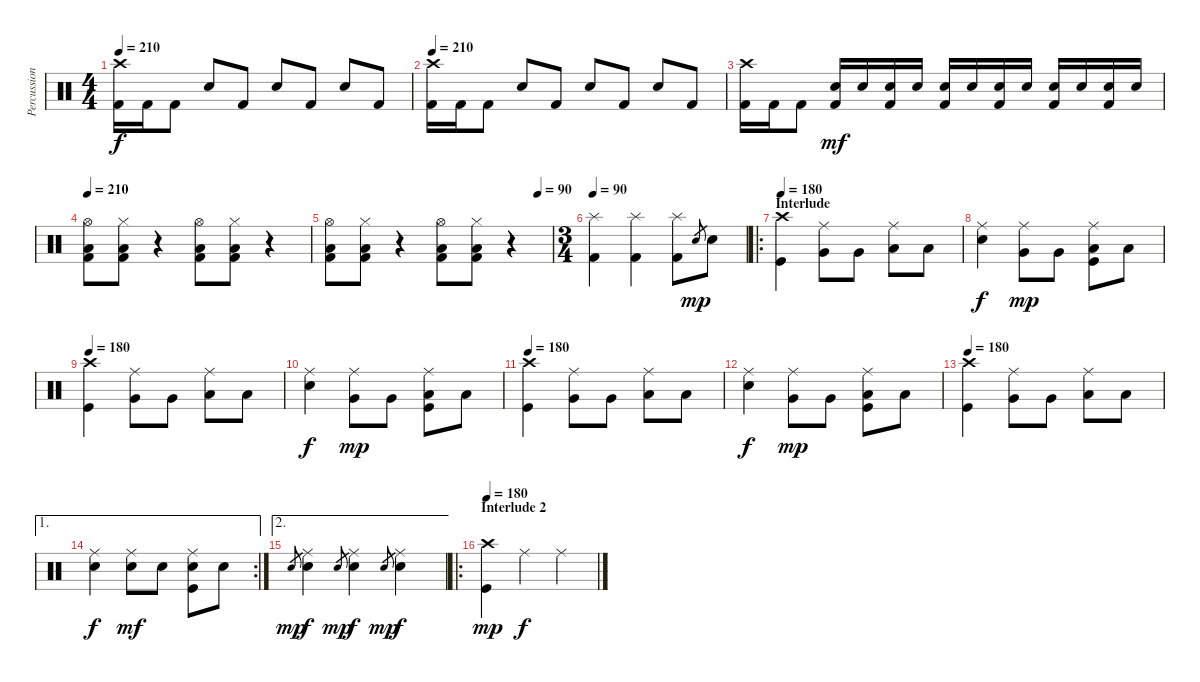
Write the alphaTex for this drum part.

\track ("Percussion" "Percussion") {instrument percussion}
\staff {score}
\articulation defaults
\ts (4 4)
\tempo 210
\clef neutral
\ks c
("Crash high (hit)" "Kick (hit) 2").16{dy f} "Kick (hit) 2".16 "Kick (hit) 2".8 "Electric Snare (hit)".8 "Kick (hit) 2".8 "Electric Snare (hit)".8 "Kick (hit) 2".8 "Electric Snare (hit)".8 "Kick (hit) 2".8 |
\tempo 210
("Crash high (hit)" "Kick (hit) 2").16 "Kick (hit) 2".16 "Kick (hit) 2".8 "Electric Snare (hit)".8 "Kick (hit) 2".8 "Electric Snare (hit)".8 "Kick (hit) 2".8 "Electric Snare (hit)".8 "Kick (hit) 2".8 |
("Crash high (hit)" "Kick (hit) 2").16 "Kick (hit) 2".16 "Kick (hit) 2".8 ("Electric Snare (hit)" "Kick (hit) 2").16{dy mf} "Electric Snare (hit)".16 ("Electric Snare (hit)" "Kick (hit) 2").16 "Electric Snare (hit)".16 ("Electric Snare (hit)" "Kick (hit) 2").16 "Electric Snare (hit)".16 ("Electric Snare (hit)" "Kick (hit) 2").16 "Electric Snare (hit)".16 ("Electric Snare (hit)" "Kick (hit) 2").16 "Electric Snare (hit)".16 ("Electric Snare (hit)" "Kick (hit) 2").16 "Electric Snare (hit)".16 |
\tempo 210
("Hi-Hat (open)" "Low Floor Tom (hit)" "Kick (hit) 2").8 ("Hi-Hat (closed)" "Low Floor Tom (hit)" "Kick (hit) 2").8 r.4 ("Hi-Hat (open)" "Low Floor Tom (hit)" "Kick (hit) 2").8 ("Hi-Hat (closed)" "Low Floor Tom (hit)" "Kick (hit) 2").8 r.4 |
\tempo (90 0.9375)
("Hi-Hat (open)" "Low Floor Tom (hit)" "Kick (hit) 2").8 ("Hi-Hat (closed)" "Low Floor Tom (hit)" "Kick (hit) 2").8 r.4 ("Hi-Hat (open)" "Low Floor Tom (hit)" "Kick (hit) 2").8 ("Hi-Hat (closed)" "Low Floor Tom (hit)" "Kick (hit) 2").8 r.4 |
\ts (3 4)
\tempo 90
("Splash (hit)" "Kick (hit) 2").4 ("Splash (hit)" "Kick (hit) 2").4 ("Splash (hit)" "Kick (hit) 2").8 "Electric Snare (hit)".8{gr dy mp} "Electric Snare (hit)".8 |
\ro
\section ("" "Interlude")
\tempo 180
("Crash high (hit)" "Kick (hit)").4 ("Ride (middle)" "Very Low Tom (hit)").8 "Very Low Tom (hit)".8 ("Ride (middle)" "Low Floor Tom (hit)").8 "Low Floor Tom (hit)".8 |
("Ride (middle)" "Electric Snare (hit)").4{dy f} ("Ride (middle)" "Very Low Tom (hit)").8{dy mp} "Very Low Tom (hit)".8 ("Ride (middle)" "Low Floor Tom (hit)" "Kick (hit)").8 "Low Floor Tom (hit)".8 |
\tempo 180
("Crash high (hit)" "Kick (hit)").4 ("Ride (middle)" "Very Low Tom (hit)").8 "Very Low Tom (hit)".8 ("Ride (middle)" "Low Floor Tom (hit)").8 "Low Floor Tom (hit)".8 |
("Ride (middle)" "Electric Snare (hit)").4{dy f} ("Ride (middle)" "Very Low Tom (hit)").8{dy mp} "Very Low Tom (hit)".8 ("Ride (middle)" "Low Floor Tom (hit)" "Kick (hit)").8 "Low Floor Tom (hit)".8 |
\tempo 180
("Crash high (hit)" "Kick (hit)").4 ("Ride (middle)" "Very Low Tom (hit)").8 "Very Low Tom (hit)".8 ("Ride (middle)" "Low Floor Tom (hit)").8 "Low Floor Tom (hit)".8 |
("Ride (middle)" "Electric Snare (hit)").4{dy f} ("Ride (middle)" "Very Low Tom (hit)").8{dy mp} "Very Low Tom (hit)".8 ("Ride (middle)" "Low Floor Tom (hit)" "Kick (hit)").8 "Low Floor Tom (hit)".8 |
\tempo 180
("Crash high (hit)" "Kick (hit)").4 ("Ride (middle)" "Very Low Tom (hit)").8 "Very Low Tom (hit)".8 ("Ride (middle)" "Low Floor Tom (hit)").8 "Low Floor Tom (hit)".8 |
\ae 1
\rc 2
("Ride (middle)" "Electric Snare (hit)").4{dy f} ("Ride (middle)" "Electric Snare (hit)").8{dy mf} "Electric Snare (hit)".8 ("Ride (middle)" "Electric Snare (hit)" "Kick (hit)").8 "Electric Snare (hit)".8 |
\ae 2 "Electric Snare (hit)".8{gr dy mp}
("Ride (middle)" "Electric Snare (hit)").4{dy f} "Electric Snare (hit)".8{gr dy mp} ("Ride (middle)" "Electric Snare (hit)").4{dy f} "Electric Snare (hit)".8{gr dy mp} ("Ride (middle)" "Electric Snare (hit)").4{dy f} |
\ro
\section ("" "Interlude 2")
\tempo 180
("Crash high (hit)" "Kick (hit)").4{dy mp} "Ride (middle)".4{dy f} "Ride (middle)".4
